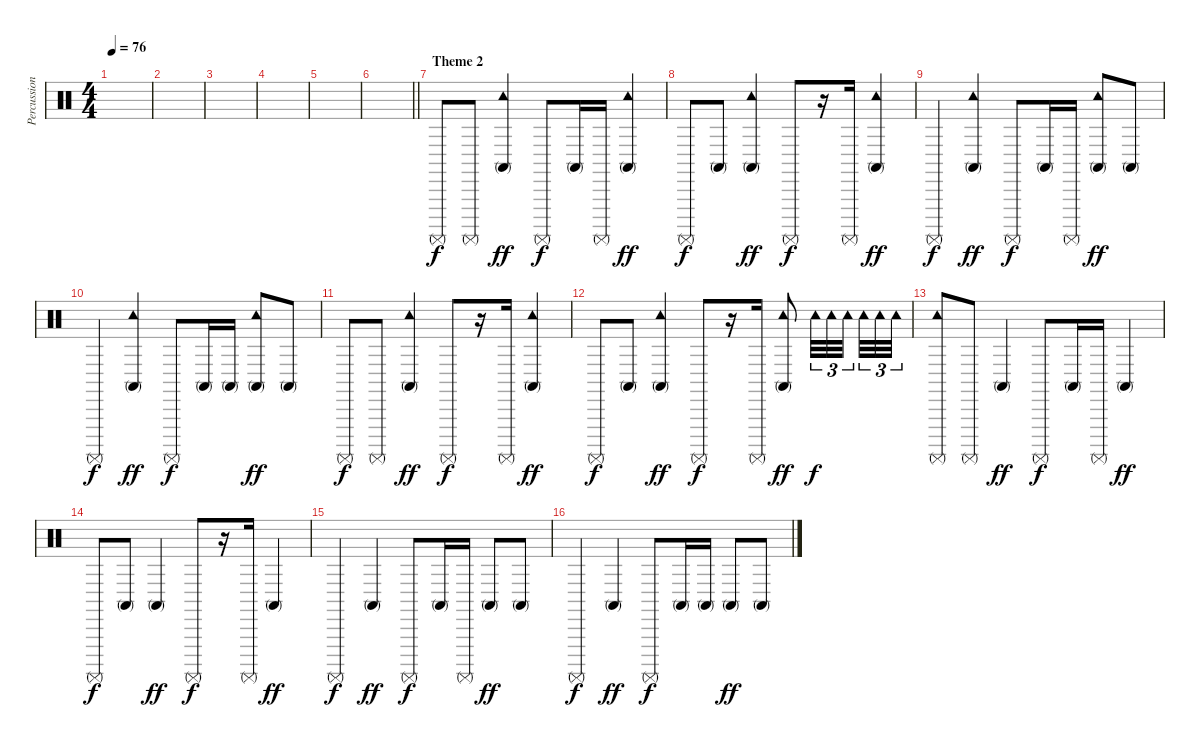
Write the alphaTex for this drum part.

\track ("Percussions" "Percussion") {instrument percussion}
\staff {score}
\articulation defaults
\ts (4 4)
\tempo 76
\clef neutral
\ks c
|
|
|
|
|
\barLineRight lightlight
|
\section ("" "Theme 2")
"Surdo (mute)".8 "Surdo (mute)".8 ("Tambourine (hit)" "Conga high (mute)").4{dy ff} "Surdo (mute)".8{dy f} "Conga high (mute)".16 "Surdo (mute)".16 ("Tambourine (hit)" "Conga high (mute)").4{dy ff} |
"Surdo (mute)".8{dy f} "Conga high (mute)".8 ("Tambourine (hit)" "Conga high (mute)").4{dy ff} "Surdo (mute)".8{dy f} r.16 "Surdo (mute)".16 ("Tambourine (hit)" "Conga high (mute)").4{dy ff} |
"Surdo (mute)".4{dy f} ("Tambourine (hit)" "Conga high (mute)").4{dy ff} "Surdo (mute)".8{dy f} "Conga high (mute)".16 "Surdo (mute)".16 ("Tambourine (hit)" "Conga high (mute)").8{dy ff} "Conga high (mute)".8 |
"Surdo (mute)".4{dy f} ("Tambourine (hit)" "Conga high (mute)").4{dy ff} "Surdo (mute)".8{dy f} "Conga high (mute)".16 "Conga high (mute)".16 ("Tambourine (hit)" "Conga high (mute)").8{dy ff} "Conga high (mute)".8 |
"Surdo (mute)".8{dy f} "Surdo (mute)".8 ("Tambourine (hit)" "Conga high (mute)").4{dy ff} "Surdo (mute)".8{dy f} r.16 "Surdo (mute)".16 ("Tambourine (hit)" "Conga high (mute)").4{dy ff} |
"Surdo (mute)".8{dy f} "Conga high (mute)".8 ("Tambourine (hit)" "Conga high (mute)").4{dy ff} "Surdo (mute)".8{dy f} r.16 "Surdo (mute)".16 ("Tambourine (hit)" "Conga high (mute)").8{dy ff} "Tambourine (hit)".32{tu (3 2) dy f} "Tambourine (hit)".32{tu (3 2)} "Tambourine (hit)".32{tu (3 2) beam splitsecondary} "Tambourine (hit)".32{tu (3 2)} "Tambourine (hit)".32{tu (3 2)} "Tambourine (hit)".32{tu (3 2)} |
("Tambourine (hit)" "Surdo (mute)").8 "Surdo (mute)".8 "Conga high (mute)".4{dy ff} "Surdo (mute)".8{dy f} "Conga high (mute)".16 "Surdo (mute)".16 "Conga high (mute)".4{dy ff} |
"Surdo (mute)".8{dy f} "Conga high (mute)".8 "Conga high (mute)".4{dy ff} "Surdo (mute)".8{dy f} r.16 "Surdo (mute)".16 "Conga high (mute)".4{dy ff} |
"Surdo (mute)".4{dy f} "Conga high (mute)".4{dy ff} "Surdo (mute)".8{dy f} "Conga high (mute)".16 "Surdo (mute)".16 "Conga high (mute)".8{dy ff} "Conga high (mute)".8 |
"Surdo (mute)".4{dy f} "Conga high (mute)".4{dy ff} "Surdo (mute)".8{dy f} "Conga high (mute)".16 "Conga high (mute)".16 "Conga high (mute)".8{dy ff} "Conga high (mute)".8
